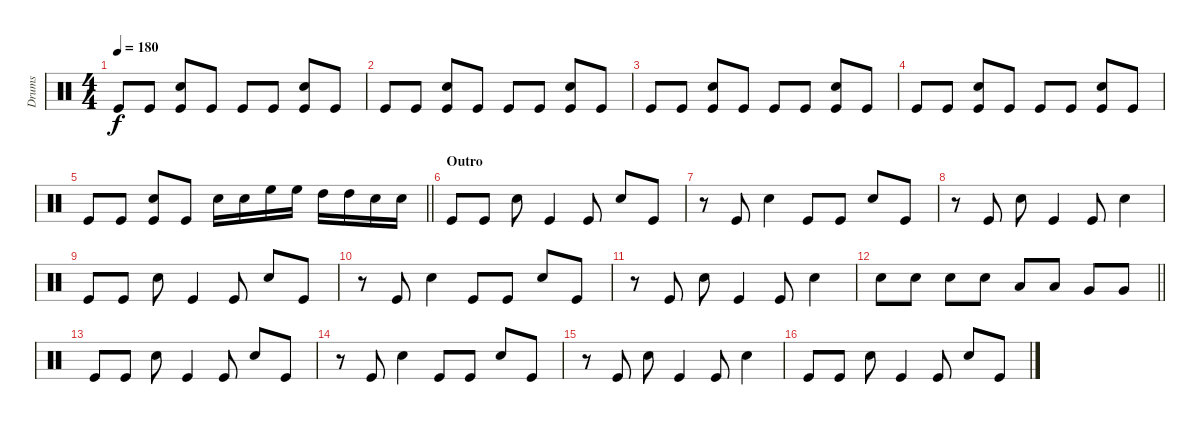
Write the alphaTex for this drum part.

\track ("Drums" "Drums") {instrument percussion}
\staff {score}
\articulation defaults
\ts (4 4)
\tempo 180
\clef neutral
\ks c "Kick (hit)".8{dy f} "Kick (hit)".8
("Electric Snare (hit)" "Kick (hit)").8 "Kick (hit)".8 "Kick (hit)".8 "Kick (hit)".8 ("Electric Snare (hit)" "Kick (hit)").8 "Kick (hit)".8 |
"Kick (hit)".8 "Kick (hit)".8 ("Electric Snare (hit)" "Kick (hit)").8 "Kick (hit)".8 "Kick (hit)".8 "Kick (hit)".8 ("Electric Snare (hit)" "Kick (hit)").8 "Kick (hit)".8 |
"Kick (hit)".8 "Kick (hit)".8 ("Electric Snare (hit)" "Kick (hit)").8 "Kick (hit)".8 "Kick (hit)".8 "Kick (hit)".8 ("Electric Snare (hit)" "Kick (hit)").8 "Kick (hit)".8 |
"Kick (hit)".8 "Kick (hit)".8 ("Electric Snare (hit)" "Kick (hit)").8 "Kick (hit)".8 "Kick (hit)".8 "Kick (hit)".8 ("Electric Snare (hit)" "Kick (hit)").8 "Kick (hit)".8 |
\barLineRight lightlight "Kick (hit)".8 "Kick (hit)".8
("Electric Snare (hit)" "Kick (hit)").8 "Kick (hit)".8 "Electric Snare (hit)".16 "Electric Snare (hit)".16 "High Floor Tom (hit)".16 "High Floor Tom (hit)".16 "High Tom (hit)".16 "High Tom (hit)".16 "Electric Snare (hit)".16 "Electric Snare (hit)".16 |
\section ("" "Outro")
"Kick (hit)".8 "Kick (hit)".8 "Electric Snare (hit)".8 "Kick (hit)".4 "Kick (hit)".8 "Electric Snare (hit)".8 "Kick (hit)".8 |
r.8 "Kick (hit)".8 "Electric Snare (hit)".4 "Kick (hit)".8 "Kick (hit)".8 "Electric Snare (hit)".8 "Kick (hit)".8 |
r.8 "Kick (hit)".8 "Electric Snare (hit)".8 "Kick (hit)".4 "Kick (hit)".8 "Electric Snare (hit)".4 |
"Kick (hit)".8 "Kick (hit)".8 "Electric Snare (hit)".8 "Kick (hit)".4 "Kick (hit)".8 "Electric Snare (hit)".8 "Kick (hit)".8 |
r.8 "Kick (hit)".8 "Electric Snare (hit)".4 "Kick (hit)".8 "Kick (hit)".8 "Electric Snare (hit)".8 "Kick (hit)".8 |
r.8 "Kick (hit)".8 "Electric Snare (hit)".8 "Kick (hit)".4 "Kick (hit)".8 "Electric Snare (hit)".4 |
\barLineRight lightlight "Electric Snare (hit)".8 "Electric Snare (hit)".8 "Electric Snare (hit)".8 "Electric Snare (hit)".8 "Low Tom (hit)".8 "Low Tom (hit)".8 "Very Low Tom (hit)".8 "Very Low Tom (hit)".8
|
"Kick (hit)".8 "Kick (hit)".8 "Electric Snare (hit)".8 "Kick (hit)".4 "Kick (hit)".8 "Electric Snare (hit)".8 "Kick (hit)".8 |
r.8 "Kick (hit)".8 "Electric Snare (hit)".4 "Kick (hit)".8 "Kick (hit)".8 "Electric Snare (hit)".8 "Kick (hit)".8 |
r.8 "Kick (hit)".8 "Electric Snare (hit)".8 "Kick (hit)".4 "Kick (hit)".8 "Electric Snare (hit)".4 |
"Kick (hit)".8 "Kick (hit)".8 "Electric Snare (hit)".8 "Kick (hit)".4 "Kick (hit)".8 "Electric Snare (hit)".8 "Kick (hit)".8
